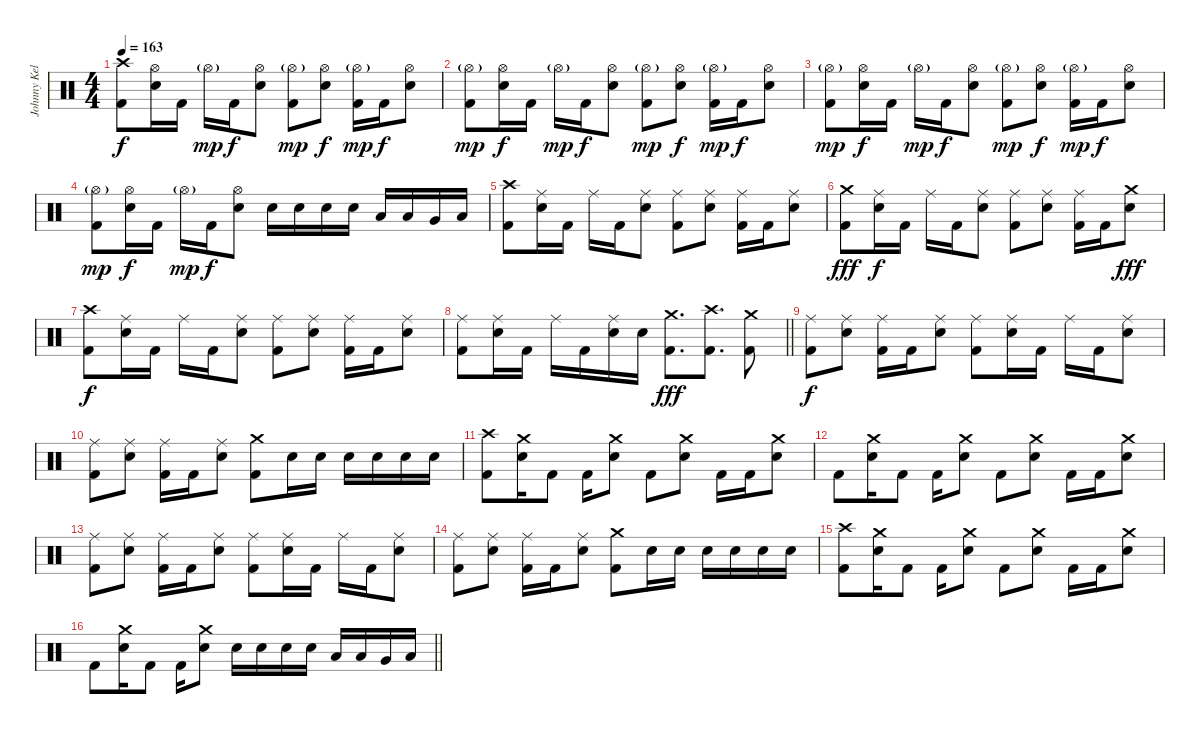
\track ("Johnny Kelly" "Johnny Kel") {instrument percussion}
\staff {score}
\articulation defaults
\ts (4 4)
\tempo 163
\clef neutral
\ks c
("Crash high (hit)" "Kick (hit) 2").8{dy f} ("Hi-Hat (open)" "Electric Snare (hit)").16 "Kick (hit) 2".16 "Hi-Hat (open)"{g}.16{dy mp} "Kick (hit) 2".16{dy f} ("Hi-Hat (open)" "Electric Snare (hit)").8 ("Hi-Hat (open)"{g} "Kick (hit) 2").8{dy mp} ("Hi-Hat (open)" "Electric Snare (hit)").8{dy f} ("Hi-Hat (open)"{g} "Kick (hit) 2").16{dy mp} "Kick (hit) 2".16{dy f} ("Hi-Hat (open)" "Electric Snare (hit)").8 |
("Hi-Hat (open)"{g} "Kick (hit) 2").8{dy mp} ("Hi-Hat (open)" "Electric Snare (hit)").16{dy f} "Kick (hit) 2".16 "Hi-Hat (open)"{g}.16{dy mp} "Kick (hit) 2".16{dy f} ("Hi-Hat (open)" "Electric Snare (hit)").8 ("Hi-Hat (open)"{g} "Kick (hit) 2").8{dy mp} ("Hi-Hat (open)" "Electric Snare (hit)").8{dy f} ("Hi-Hat (open)"{g} "Kick (hit) 2").16{dy mp} "Kick (hit) 2".16{dy f} ("Hi-Hat (open)" "Electric Snare (hit)").8 |
("Hi-Hat (open)"{g} "Kick (hit) 2").8{dy mp} ("Hi-Hat (open)" "Electric Snare (hit)").16{dy f} "Kick (hit) 2".16 "Hi-Hat (open)"{g}.16{dy mp} "Kick (hit) 2".16{dy f} ("Hi-Hat (open)" "Electric Snare (hit)").8 ("Hi-Hat (open)"{g} "Kick (hit) 2").8{dy mp} ("Hi-Hat (open)" "Electric Snare (hit)").8{dy f} ("Hi-Hat (open)"{g} "Kick (hit) 2").16{dy mp} "Kick (hit) 2".16{dy f} ("Hi-Hat (open)" "Electric Snare (hit)").8 |
("Hi-Hat (open)"{g} "Kick (hit) 2").8{dy mp} ("Hi-Hat (open)" "Electric Snare (hit)").16{dy f} "Kick (hit) 2".16 "Hi-Hat (open)"{g}.16{dy mp} "Kick (hit) 2".16{dy f} ("Hi-Hat (open)" "Electric Snare (hit)").8 "Electric Snare (hit)".16 "Electric Snare (hit)".16 "Electric Snare (hit)".16 "Electric Snare (hit)".16 "Low Tom (hit)".16 "Low Tom (hit)".16 "Very Low Tom (hit)".16 "Low Floor Tom (hit)".16 |
("Crash high (hit)" "Kick (hit) 2").8 ("Ride (middle)" "Electric Snare (hit)").16 "Kick (hit) 2".16 "Ride (middle)".16 "Kick (hit) 2".16 ("Ride (middle)" "Electric Snare (hit)").8 ("Ride (middle)" "Kick (hit) 2").8 ("Ride (middle)" "Electric Snare (hit)").8 ("Ride (middle)" "Kick (hit) 2").16 "Kick (hit) 2".16 ("Ride (middle)" "Electric Snare (hit)").8 |
("Crash medium (hit)" "Kick (hit) 2").8{dy fff} ("Ride (middle)" "Electric Snare (hit)").16{dy f} "Kick (hit) 2".16 "Ride (middle)".16 "Kick (hit) 2".16 ("Ride (middle)" "Electric Snare (hit)").8 ("Ride (middle)" "Kick (hit) 2").8 ("Ride (middle)" "Electric Snare (hit)").8 ("Ride (middle)" "Kick (hit) 2").16 "Kick (hit) 2".16 ("Crash medium (hit)" "Electric Snare (hit)").8{dy fff} |
("Crash high (hit)" "Kick (hit) 2").8{dy f} ("Ride (middle)" "Electric Snare (hit)").16 "Kick (hit) 2".16 "Ride (middle)".16 "Kick (hit) 2".16 ("Ride (middle)" "Electric Snare (hit)").8 ("Ride (middle)" "Kick (hit) 2").8 ("Ride (middle)" "Electric Snare (hit)").8 ("Ride (middle)" "Kick (hit) 2").16 "Kick (hit) 2".16 ("Ride (middle)" "Electric Snare (hit)").8 |
\barLineRight lightlight
("Ride (middle)" "Kick (hit) 2").8 ("Ride (middle)" "Electric Snare (hit)").16 "Kick (hit) 2".16 "Ride (middle)".16 "Kick (hit) 2".16 ("Ride (middle)" "Electric Snare (hit)").16 "Electric Snare (hit)".16 ("Crash medium (hit)" "Kick (hit) 2").8{d dy fff} ("Crash high (hit)" "Kick (hit) 2").8{d} ("Crash medium (hit)" "Kick (hit) 2").8 |
\section ("" "")
("Ride (middle)" "Kick (hit) 2").8{dy f} ("Ride (middle)" "Electric Snare (hit)").8 ("Ride (middle)" "Kick (hit) 2").16 "Kick (hit) 2".16 ("Ride (middle)" "Electric Snare (hit)").8 ("Ride (middle)" "Kick (hit) 2").8 ("Ride (middle)" "Electric Snare (hit)").16 "Kick (hit) 2".16 "Ride (middle)".16 "Kick (hit) 2".16 ("Ride (middle)" "Electric Snare (hit)").8 |
("Ride (middle)" "Kick (hit) 2").8 ("Ride (middle)" "Electric Snare (hit)").8 ("Ride (middle)" "Kick (hit) 2").16 "Kick (hit) 2".16 ("Ride (middle)" "Electric Snare (hit)").8 ("Crash medium (hit)" "Kick (hit) 2").8 "Electric Snare (hit)".16 "Electric Snare (hit)".16 "Electric Snare (hit)".16 "Electric Snare (hit)".16 "Electric Snare (hit)".16 "Electric Snare (hit)".16 |
("Crash high (hit)" "Kick (hit) 2").8 ("Crash medium (hit)" "Electric Snare (hit)").16 "Kick (hit) 2".8 "Kick (hit) 2".16 ("Crash medium (hit)" "Electric Snare (hit)").8 "Kick (hit) 2".8 ("Crash medium (hit)" "Electric Snare (hit)").8 "Kick (hit) 2".16 "Kick (hit) 2".16 ("Crash medium (hit)" "Electric Snare (hit)").8 |
"Kick (hit) 2".8 ("Crash medium (hit)" "Electric Snare (hit)").16 "Kick (hit) 2".8 "Kick (hit) 2".16 ("Crash medium (hit)" "Electric Snare (hit)").8 "Kick (hit) 2".8 ("Crash medium (hit)" "Electric Snare (hit)").8 "Kick (hit) 2".16 "Kick (hit) 2".16 ("Crash medium (hit)" "Electric Snare (hit)").8 |
("Ride (middle)" "Kick (hit) 2").8 ("Ride (middle)" "Electric Snare (hit)").8 ("Ride (middle)" "Kick (hit) 2").16 "Kick (hit) 2".16 ("Ride (middle)" "Electric Snare (hit)").8 ("Ride (middle)" "Kick (hit) 2").8 ("Ride (middle)" "Electric Snare (hit)").16 "Kick (hit) 2".16 "Ride (middle)".16 "Kick (hit) 2".16 ("Ride (middle)" "Electric Snare (hit)").8 |
("Ride (middle)" "Kick (hit) 2").8 ("Ride (middle)" "Electric Snare (hit)").8 ("Ride (middle)" "Kick (hit) 2").16 "Kick (hit) 2".16 ("Ride (middle)" "Electric Snare (hit)").8 ("Crash medium (hit)" "Kick (hit) 2").8 "Electric Snare (hit)".16 "Electric Snare (hit)".16 "Electric Snare (hit)".16 "Electric Snare (hit)".16 "Electric Snare (hit)".16 "Electric Snare (hit)".16 |
("Crash high (hit)" "Kick (hit) 2").8 ("Crash medium (hit)" "Electric Snare (hit)").16 "Kick (hit) 2".8 "Kick (hit) 2".16 ("Crash medium (hit)" "Electric Snare (hit)").8 "Kick (hit) 2".8 ("Crash medium (hit)" "Electric Snare (hit)").8 "Kick (hit) 2".16 "Kick (hit) 2".16 ("Crash medium (hit)" "Electric Snare (hit)").8 |
\barLineRight lightlight "Kick (hit) 2".8
("Crash medium (hit)" "Electric Snare (hit)").16 "Kick (hit) 2".8 "Kick (hit) 2".16 ("Crash medium (hit)" "Electric Snare (hit)").8 "Electric Snare (hit)".16 "Electric Snare (hit)".16 "Electric Snare (hit)".16 "Electric Snare (hit)".16 "Low Tom (hit)".16 "Low Tom (hit)".16 "Very Low Tom (hit)".16 "Low Floor Tom (hit)".16
